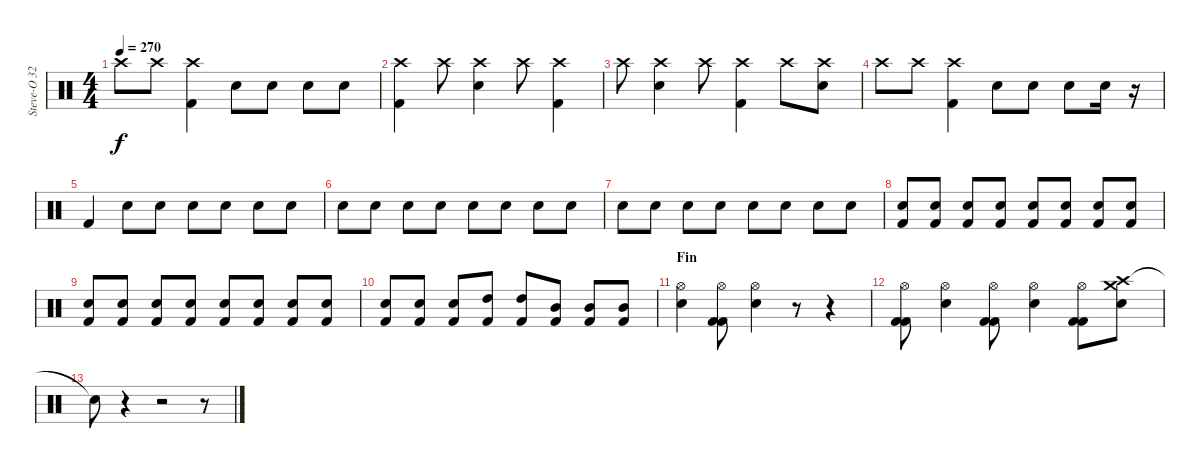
\track ("Steve-O 32" "Steve-O 32") {instrument percussion}
\staff {score}
\articulation defaults
\ts (4 4)
\tempo 270
\clef neutral
\ks c "Crash high (hit)".8{dy f} "Crash high (hit)".8
("Kick (hit) 2" "Crash high (hit)").4 "Electric Snare (hit)".8 "Electric Snare (hit)".8 "Electric Snare (hit)".8 "Electric Snare (hit)".8 |
("Crash high (hit)" "Kick (hit) 2").4 "Crash high (hit)".8 ("Electric Snare (hit)" "Crash high (hit)").4 "Crash high (hit)".8 ("Kick (hit) 2" "Crash high (hit)").4 |
"Crash high (hit)".8 ("Electric Snare (hit)" "Crash high (hit)").4 "Crash high (hit)".8 ("Kick (hit) 2" "Crash high (hit)").4 "Crash high (hit)".8 ("Electric Snare (hit)" "Crash high (hit)").8 |
"Crash high (hit)".8 "Crash high (hit)".8 ("Kick (hit) 2" "Crash high (hit)").4 "Electric Snare (hit)".8 "Electric Snare (hit)".8 "Electric Snare (hit)".8 "Electric Snare (hit)".16 r.16{volume 5} |
"Kick (hit) 2".4{volume 13} "Electric Snare (hit)".8 "Electric Snare (hit)".8 "Electric Snare (hit)".8 "Electric Snare (hit)".8 "Electric Snare (hit)".8 "Electric Snare (hit)".8 |
"Electric Snare (hit)".8 "Electric Snare (hit)".8 "Electric Snare (hit)".8 "Electric Snare (hit)".8 "Electric Snare (hit)".8 "Electric Snare (hit)".8 "Electric Snare (hit)".8 "Electric Snare (hit)".8 |
"Electric Snare (hit)".8 "Electric Snare (hit)".8 "Electric Snare (hit)".8 "Electric Snare (hit)".8 "Electric Snare (hit)".8 "Electric Snare (hit)".8 "Electric Snare (hit)".8 "Electric Snare (hit)".8 |
("Electric Snare (hit)" "Kick (hit) 2").8 ("Electric Snare (hit)" "Kick (hit) 2").8 ("Electric Snare (hit)" "Kick (hit) 2").8 ("Electric Snare (hit)" "Kick (hit) 2").8 ("Electric Snare (hit)" "Kick (hit) 2").8 ("Electric Snare (hit)" "Kick (hit) 2").8 ("Electric Snare (hit)" "Kick (hit) 2").8 ("Electric Snare (hit)" "Kick (hit) 2").8 |
("Electric Snare (hit)" "Kick (hit) 2").8 ("Electric Snare (hit)" "Kick (hit) 2").8 ("Electric Snare (hit)" "Kick (hit) 2").8 ("Electric Snare (hit)" "Kick (hit) 2").8 ("Electric Snare (hit)" "Kick (hit) 2").8 ("Electric Snare (hit)" "Kick (hit) 2").8 ("Electric Snare (hit)" "Kick (hit) 2").8 ("Electric Snare (hit)" "Kick (hit) 2").8 |
("Electric Snare (hit)" "Kick (hit) 2").8 ("Electric Snare (hit)" "Kick (hit) 2").8 ("Electric Snare (hit)" "Kick (hit) 2").8 ("High Tom (hit)" "Kick (hit) 2").8 ("High Tom (hit)" "Kick (hit) 2").8 ("Mid Tom (hit)" "Kick (hit) 2").8 ("Mid Tom (hit)" "Kick (hit) 2").8 ("Mid Tom (hit)" "Kick (hit) 2").8 |
\section ("" "Fin")
("Electric Snare (hit)" "Hi-Hat (open)").4 ("Kick (hit) 2" "Kick (hit) 2" "Hi-Hat (open)").8 ("Electric Snare (hit)" "Hi-Hat (open)").4 r.8 r.4 |
("Hi-Hat (open)" "Kick (hit) 2" "Kick (hit) 2").8 ("Hi-Hat (open)" "Electric Snare (hit)").4 ("Hi-Hat (open)" "Kick (hit) 2" "Kick (hit) 2").8 ("Hi-Hat (open)" "Electric Snare (hit)").4 ("Hi-Hat (open)" "Kick (hit) 2" "Kick (hit) 2").8 ("Crash high (hit)" "Crash medium (hit)" "Electric Snare (hit)").8 |
"Snare (hit)"{t}.8 r.4 r.2 r.8
